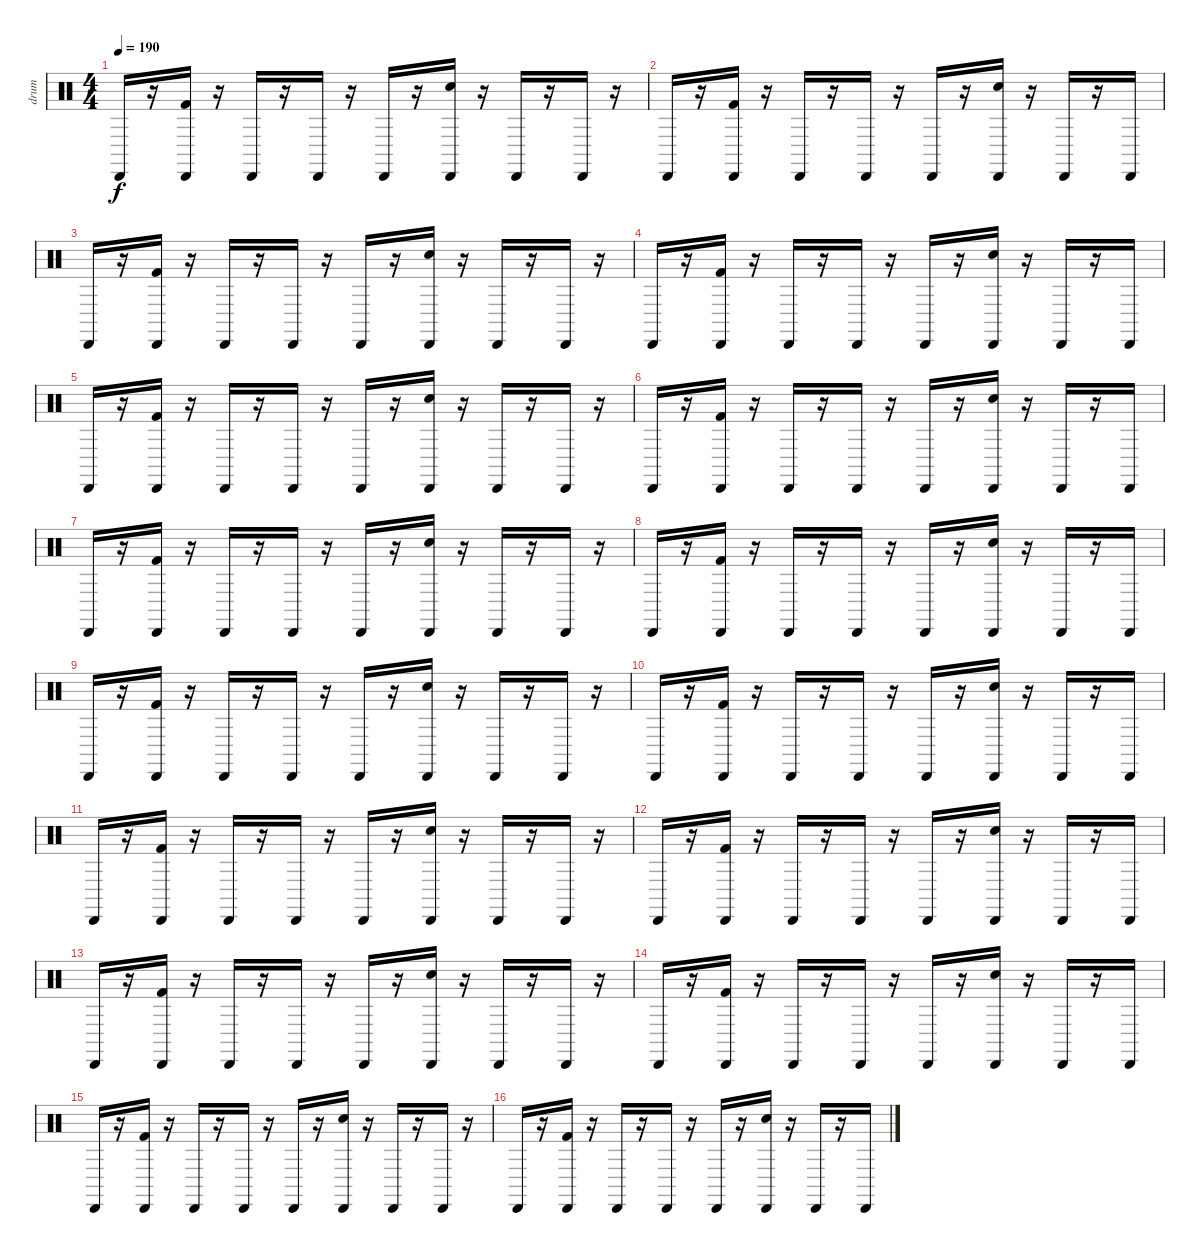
\track ("drum" "drum") {instrument percussion}
\staff {score}
\articulation defaults
\ts (4 4)
\tempo 190
\clef neutral
\ks c "Cabasa (hit)".16{dy f}
r.16 ("Cabasa (hit)" "Kick (hit) 2").16 r.16 "Cabasa (hit)".16 r.16 "Cabasa (hit)".16 r.16 "Cabasa (hit)".16 r.16 ("Cabasa (hit)" "Snare (hit) 2").16 r.16 "Cabasa (hit)".16 r.16 "Cabasa (hit)".16 r.16 |
"Cabasa (hit)".16 r.16 ("Cabasa (hit)" "Kick (hit) 2").16 r.16 "Cabasa (hit)".16 r.16 "Cabasa (hit)".16 r.16 "Cabasa (hit)".16 r.16 ("Cabasa (hit)" "Snare (hit) 2").16 r.16 "Cabasa (hit)".16 r.16 "Cabasa (hit)".16 |
"Cabasa (hit)".16 r.16 ("Cabasa (hit)" "Kick (hit) 2").16 r.16 "Cabasa (hit)".16 r.16 "Cabasa (hit)".16 r.16 "Cabasa (hit)".16 r.16 ("Cabasa (hit)" "Snare (hit) 2").16 r.16 "Cabasa (hit)".16 r.16 "Cabasa (hit)".16 r.16 |
"Cabasa (hit)".16 r.16 ("Cabasa (hit)" "Kick (hit) 2").16 r.16 "Cabasa (hit)".16 r.16 "Cabasa (hit)".16 r.16 "Cabasa (hit)".16 r.16 ("Cabasa (hit)" "Snare (hit) 2").16 r.16 "Cabasa (hit)".16 r.16 "Cabasa (hit)".16 |
"Cabasa (hit)".16 r.16 ("Cabasa (hit)" "Kick (hit) 2").16 r.16 "Cabasa (hit)".16 r.16 "Cabasa (hit)".16 r.16 "Cabasa (hit)".16 r.16 ("Cabasa (hit)" "Snare (hit) 2").16 r.16 "Cabasa (hit)".16 r.16 "Cabasa (hit)".16 r.16 |
"Cabasa (hit)".16 r.16 ("Cabasa (hit)" "Kick (hit) 2").16 r.16 "Cabasa (hit)".16 r.16 "Cabasa (hit)".16 r.16 "Cabasa (hit)".16 r.16 ("Cabasa (hit)" "Snare (hit) 2").16 r.16 "Cabasa (hit)".16 r.16 "Cabasa (hit)".16 |
"Cabasa (hit)".16 r.16 ("Cabasa (hit)" "Kick (hit) 2").16 r.16 "Cabasa (hit)".16 r.16 "Cabasa (hit)".16 r.16 "Cabasa (hit)".16 r.16 ("Cabasa (hit)" "Snare (hit) 2").16 r.16 "Cabasa (hit)".16 r.16 "Cabasa (hit)".16 r.16 |
"Cabasa (hit)".16 r.16 ("Cabasa (hit)" "Kick (hit) 2").16 r.16 "Cabasa (hit)".16 r.16 "Cabasa (hit)".16 r.16 "Cabasa (hit)".16 r.16 ("Cabasa (hit)" "Snare (hit) 2").16 r.16 "Cabasa (hit)".16 r.16 "Cabasa (hit)".16 |
"Cabasa (hit)".16 r.16 ("Cabasa (hit)" "Kick (hit) 2").16 r.16 "Cabasa (hit)".16 r.16 "Cabasa (hit)".16 r.16 "Cabasa (hit)".16 r.16 ("Cabasa (hit)" "Snare (hit) 2").16 r.16 "Cabasa (hit)".16 r.16 "Cabasa (hit)".16 r.16 |
"Cabasa (hit)".16 r.16 ("Cabasa (hit)" "Kick (hit) 2").16 r.16 "Cabasa (hit)".16 r.16 "Cabasa (hit)".16 r.16 "Cabasa (hit)".16 r.16 ("Cabasa (hit)" "Snare (hit) 2").16 r.16 "Cabasa (hit)".16 r.16 "Cabasa (hit)".16 |
"Cabasa (hit)".16 r.16 ("Cabasa (hit)" "Kick (hit) 2").16 r.16 "Cabasa (hit)".16 r.16 "Cabasa (hit)".16 r.16 "Cabasa (hit)".16 r.16 ("Cabasa (hit)" "Snare (hit) 2").16 r.16 "Cabasa (hit)".16 r.16 "Cabasa (hit)".16 r.16 |
"Cabasa (hit)".16 r.16 ("Cabasa (hit)" "Kick (hit) 2").16 r.16 "Cabasa (hit)".16 r.16 "Cabasa (hit)".16 r.16 "Cabasa (hit)".16 r.16 ("Cabasa (hit)" "Snare (hit) 2").16 r.16 "Cabasa (hit)".16 r.16 "Cabasa (hit)".16 |
"Cabasa (hit)".16 r.16 ("Cabasa (hit)" "Kick (hit) 2").16 r.16 "Cabasa (hit)".16 r.16 "Cabasa (hit)".16 r.16 "Cabasa (hit)".16 r.16 ("Cabasa (hit)" "Snare (hit) 2").16 r.16 "Cabasa (hit)".16 r.16 "Cabasa (hit)".16 r.16 |
"Cabasa (hit)".16 r.16 ("Cabasa (hit)" "Kick (hit) 2").16 r.16 "Cabasa (hit)".16 r.16 "Cabasa (hit)".16 r.16 "Cabasa (hit)".16 r.16 ("Cabasa (hit)" "Snare (hit) 2").16 r.16 "Cabasa (hit)".16 r.16 "Cabasa (hit)".16 |
"Cabasa (hit)".16 r.16 ("Cabasa (hit)" "Kick (hit) 2").16 r.16 "Cabasa (hit)".16 r.16 "Cabasa (hit)".16 r.16 "Cabasa (hit)".16 r.16 ("Cabasa (hit)" "Snare (hit) 2").16 r.16 "Cabasa (hit)".16 r.16 "Cabasa (hit)".16 r.16 |
"Cabasa (hit)".16 r.16 ("Cabasa (hit)" "Kick (hit) 2").16 r.16 "Cabasa (hit)".16 r.16 "Cabasa (hit)".16 r.16 "Cabasa (hit)".16 r.16 ("Cabasa (hit)" "Snare (hit) 2").16 r.16 "Cabasa (hit)".16 r.16 "Cabasa (hit)".16
